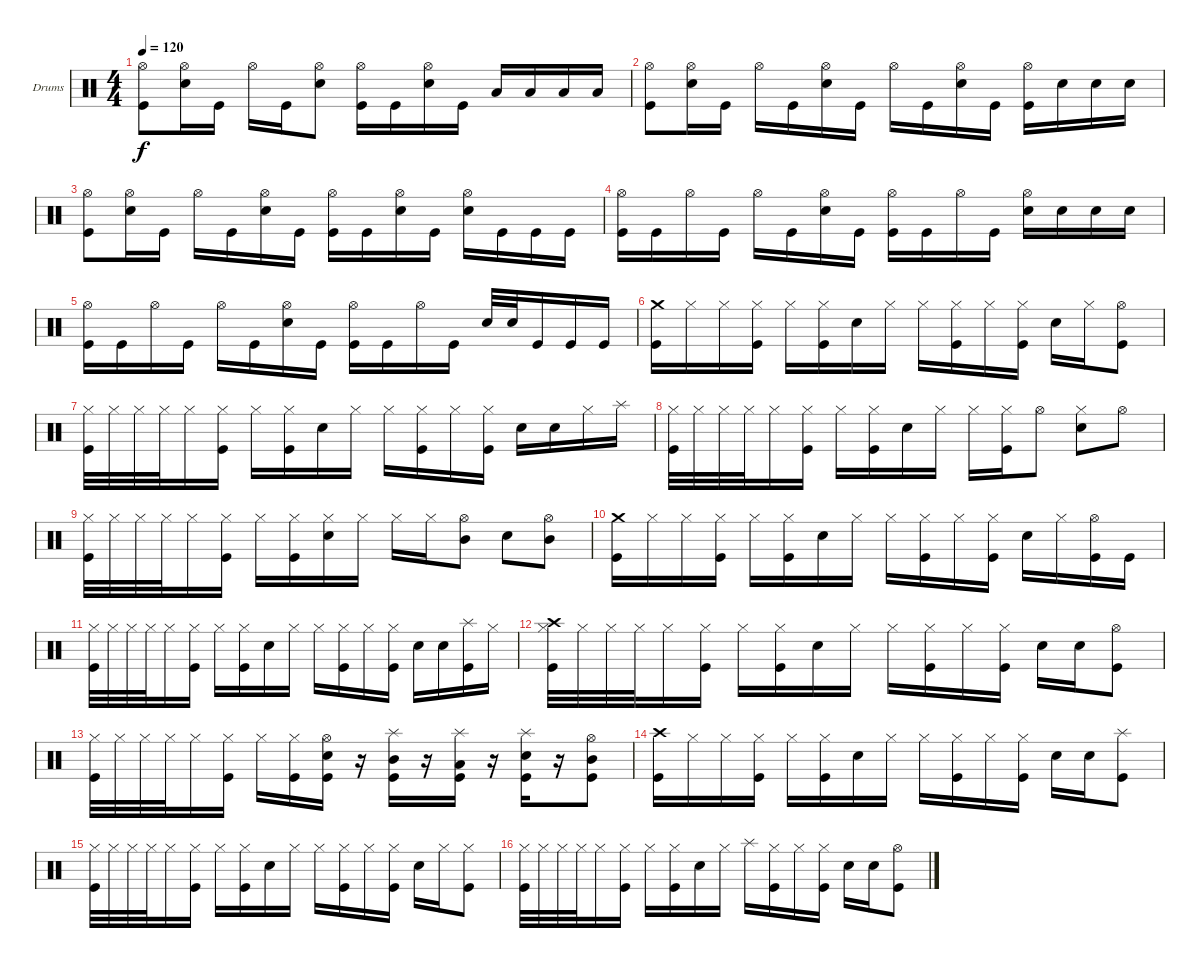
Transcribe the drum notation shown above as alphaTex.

\bracketExtendMode groupsimilarinstruments
\firstSystemTrackNameOrientation horizontal
\otherSystemsTrackNameOrientation horizontal
\track ("Drumkit" "Drums") {instrument percussion}
\staff {score}
\articulation defaults
\ts (4 4)
\tempo 120
\clef neutral
\scale
0.333333
\ks c
("Hi-Hat (open)" "Kick (hit)").8{dy f} ("Hi-Hat (open)" "Snare (hit) 2").16 "Kick (hit)".16 "Hi-Hat (open)".16 "Kick (hit)".16 ("Hi-Hat (open)" "Snare (hit) 2").8 ("Hi-Hat (open)" "Kick (hit)").16 "Kick (hit)".16 ("Hi-Hat (open)" "Snare (hit) 2").16 "Kick (hit)".16 "Low Tom (hit)".16 "Low Tom (hit)".16 "Low Tom (hit)".16 "Low Tom (hit)".16 |
\scale
0.333333 ("Hi-Hat (open)" "Kick (hit)").8 ("Hi-Hat (open)" "Snare (hit) 2").16 "Kick (hit)".16 "Hi-Hat (open)".16 "Kick (hit)".16 ("Hi-Hat (open)" "Snare (hit) 2").16 "Kick (hit)".16 "Hi-Hat (open)".16 "Kick (hit)".16 ("Hi-Hat (open)" "Snare (hit) 2").16 "Kick (hit)".16 ("Hi-Hat (open)" "Kick (hit)").16 "Snare (hit) 2".16 "Snare (hit) 2".16 "Snare (hit) 2".16 |
\scale
0.333333 ("Hi-Hat (open)" "Kick (hit)").8 ("Hi-Hat (open)" "Snare (hit) 2").16 "Kick (hit)".16 "Hi-Hat (open)".16 "Kick (hit)".16 ("Hi-Hat (open)" "Snare (hit) 2").16 "Kick (hit)".16 ("Hi-Hat (open)" "Kick (hit)").16 "Kick (hit)".16 ("Hi-Hat (open)" "Snare (hit) 2").16 "Kick (hit)".16 ("Hi-Hat (open)" "Snare (hit) 2").16 "Kick (hit)".16 "Kick (hit)".16 "Kick (hit)".16 |
\scale
0.333333 ("Hi-Hat (open)" "Kick (hit)").16 "Kick (hit)".16 "Hi-Hat (open)".16 "Kick (hit)".16 "Hi-Hat (open)".16 "Kick (hit)".16 ("Hi-Hat (open)" "Snare (hit) 2").16 "Kick (hit)".16 ("Hi-Hat (open)" "Kick (hit)").16 "Kick (hit)".16 "Hi-Hat (open)".16 "Kick (hit)".16 ("Hi-Hat (open)" "Snare (hit) 2").16 "Snare (hit) 2".16 "Snare (hit) 2".16 "Snare (hit) 2".16 |
\scale
0.333333 ("Hi-Hat (open)" "Kick (hit)").16 "Kick (hit)".16 "Hi-Hat (open)".16 "Kick (hit)".16 "Hi-Hat (open)".16 "Kick (hit)".16 ("Hi-Hat (open)" "Snare (hit) 2").16 "Kick (hit)".16 ("Hi-Hat (open)" "Kick (hit)").16 "Kick (hit)".16 "Hi-Hat (open)".16 "Kick (hit)".16 "Snare (hit) 2".32 "Snare (hit) 2".32 "Kick (hit)".16 "Kick (hit)".16 "Kick (hit)".16 |
\scale
0.333333 ("Crash medium (hit)" "Kick (hit)").16 "Hi-Hat (closed)".16 "Hi-Hat (closed)".16 ("Hi-Hat (closed)" "Kick (hit)").16 "Hi-Hat (closed)".16 ("Hi-Hat (closed)" "Kick (hit)").16 "Snare (hit) 2".16 "Hi-Hat (closed)".16 "Hi-Hat (closed)".16 ("Hi-Hat (closed)" "Kick (hit)").16 "Hi-Hat (closed)".16 ("Hi-Hat (closed)" "Kick (hit)").16 "Snare (hit) 2".16 "Hi-Hat (closed)".16 ("Hi-Hat (open)" "Kick (hit)").8 |
\scale
0.333333 ("Hi-Hat (closed)" "Kick (hit)").32 "Hi-Hat (closed)".32 "Hi-Hat (closed)".32 "Hi-Hat (closed)".32 "Hi-Hat (closed)".16 ("Hi-Hat (closed)" "Kick (hit)").16 "Hi-Hat (closed)".16 ("Hi-Hat (closed)" "Kick (hit)").16 "Snare (hit) 2".16 "Hi-Hat (closed)".16 "Hi-Hat (closed)".16 ("Hi-Hat (closed)" "Kick (hit)").16 "Hi-Hat (closed)".16 ("Hi-Hat (closed)" "Kick (hit)").16 "Snare (hit) 2".16 "Snare (hit) 2".16 "Hi-Hat (closed)".16 "Splash (hit)".16 |
\scale
0.333333 ("Hi-Hat (closed)" "Kick (hit)").32 "Hi-Hat (closed)".32 "Hi-Hat (closed)".32 "Hi-Hat (closed)".32 "Hi-Hat (closed)".16 ("Hi-Hat (closed)" "Kick (hit)").16 "Hi-Hat (closed)".16 ("Hi-Hat (closed)" "Kick (hit)").16 "Snare (hit) 2".16 "Hi-Hat (closed)".16 "Hi-Hat (closed)".16 ("Hi-Hat (closed)" "Kick (hit)").16 "Hi-Hat (open)".8 ("Hi-Hat (closed)" "Snare (hit) 2").8 "Hi-Hat (open)".8 |
\scale
0.333333 ("Hi-Hat (closed)" "Kick (hit)").32 "Hi-Hat (closed)".32 "Hi-Hat (closed)".32 "Hi-Hat (closed)".32 "Hi-Hat (closed)".16 ("Hi-Hat (closed)" "Kick (hit)").16 "Hi-Hat (closed)".16 ("Hi-Hat (closed)" "Kick (hit)").16 ("Hi-Hat (closed)" "Snare (hit) 2").16 "Hi-Hat (closed)".16 "Hi-Hat (closed)".16 "Hi-Hat (closed)".16 ("Hi-Hat (open)" "Mid Tom (hit)").8 "Snare (hit) 2".8 ("Hi-Hat (open)" "Mid Tom (hit)").8 |
\scale
0.333333 ("Crash medium (hit)" "Kick (hit)").16 "Hi-Hat (closed)".16 "Hi-Hat (closed)".16 ("Hi-Hat (closed)" "Kick (hit)").16 "Hi-Hat (closed)".16 ("Hi-Hat (closed)" "Kick (hit)").16 "Snare (hit) 2".16 "Hi-Hat (closed)".16 "Hi-Hat (closed)".16 ("Hi-Hat (closed)" "Kick (hit)").16 "Hi-Hat (closed)".16 ("Hi-Hat (closed)" "Kick (hit)").16 "Snare (hit) 2".16 "Hi-Hat (closed)".16 ("Hi-Hat (open)" "Kick (hit)").16 "Kick (hit)".16 |
\scale
0.333333 ("Hi-Hat (closed)" "Kick (hit)").32 "Hi-Hat (closed)".32 "Hi-Hat (closed)".32 "Hi-Hat (closed)".32 "Hi-Hat (closed)".16 ("Hi-Hat (closed)" "Kick (hit)").16 "Hi-Hat (closed)".16 ("Hi-Hat (closed)" "Kick (hit)").16 "Snare (hit) 2".16 "Hi-Hat (closed)".16 "Hi-Hat (closed)".16 ("Hi-Hat (closed)" "Kick (hit)").16 "Hi-Hat (closed)".16 ("Hi-Hat (closed)" "Kick (hit)").16 "Snare (hit) 2".16 "Snare (hit) 2".16 ("Splash (hit)" "Kick (hit)").16 "Hi-Hat (closed)".16 |
\scale
0.333333 ("Crash high (hit)" "Hi-Hat (closed)" "Kick (hit)").32 "Hi-Hat (closed)".32 "Hi-Hat (closed)".32 "Hi-Hat (closed)".32 "Hi-Hat (closed)".16 ("Hi-Hat (closed)" "Kick (hit)").16 "Hi-Hat (closed)".16 ("Hi-Hat (closed)" "Kick (hit)").16 "Snare (hit) 2".16 "Hi-Hat (closed)".16 "Hi-Hat (closed)".16 ("Hi-Hat (closed)" "Kick (hit)").16 "Hi-Hat (closed)".16 ("Hi-Hat (closed)" "Kick (hit)").16 "Snare (hit) 2".16 "Snare (hit) 2".16 ("Hi-Hat (open)" "Kick (hit)").8 |
\scale
0.333333 ("Hi-Hat (closed)" "Kick (hit)").32 "Hi-Hat (closed)".32 "Hi-Hat (closed)".32 "Hi-Hat (closed)".32 "Hi-Hat (closed)".16 ("Hi-Hat (closed)" "Kick (hit)").16 "Hi-Hat (closed)".16 ("Hi-Hat (closed)" "Kick (hit)").16 ("Hi-Hat (open)" "Snare (hit) 2" "Kick (hit)").16 r.16 ("Splash (hit)" "Mid Tom (hit)" "Kick (hit)").16 r.16 ("Splash (hit)" "Low Tom (hit)" "Kick (hit)").16 r.16 ("Splash (hit)" "Snare (hit) 2" "Kick (hit)").16 r.16 ("Hi-Hat (open)" "Mid Tom (hit)" "Kick (hit)").8 |
\scale
0.333333 ("Crash high (hit)" "Kick (hit)").16 "Hi-Hat (closed)".16 "Hi-Hat (closed)".16 ("Hi-Hat (closed)" "Kick (hit)").16 "Hi-Hat (closed)".16 ("Hi-Hat (closed)" "Kick (hit)").16 "Snare (hit) 2".16 "Hi-Hat (closed)".16 "Hi-Hat (closed)".16 ("Hi-Hat (closed)" "Kick (hit)").16 "Hi-Hat (closed)".16 ("Hi-Hat (closed)" "Kick (hit)").16 "Snare (hit) 2".16 "Snare (hit) 2".16 ("Splash (hit)" "Kick (hit)").8 |
\scale
0.333333 ("Hi-Hat (closed)" "Kick (hit)").32 "Hi-Hat (closed)".32 "Hi-Hat (closed)".32 "Hi-Hat (closed)".32 "Hi-Hat (closed)".16 ("Hi-Hat (closed)" "Kick (hit)").16 "Hi-Hat (closed)".16 ("Hi-Hat (closed)" "Kick (hit)").16 "Snare (hit) 2".16 "Hi-Hat (closed)".16 "Hi-Hat (closed)".16 ("Hi-Hat (closed)" "Kick (hit)").16 "Hi-Hat (closed)".16 ("Hi-Hat (closed)" "Kick (hit)").16 "Snare (hit) 2".16 "Hi-Hat (closed)".16 ("Hi-Hat (closed)" "Kick (hit)").8 |
\scale
0.333333 ("Hi-Hat (closed)" "Kick (hit)").32 "Hi-Hat (closed)".32 "Hi-Hat (closed)".32 "Hi-Hat (closed)".32 "Hi-Hat (closed)".16 ("Hi-Hat (closed)" "Kick (hit)").16 "Hi-Hat (closed)".16 ("Hi-Hat (closed)" "Kick (hit)").16 "Snare (hit) 2".16 "Hi-Hat (closed)".16 "Splash (hit)".16 ("Hi-Hat (closed)" "Kick (hit)").16 "Hi-Hat (closed)".16 ("Hi-Hat (closed)" "Kick (hit)").16 "Snare (hit) 2".16 "Snare (hit) 2".16 ("Hi-Hat (open)" "Kick (hit)").8
